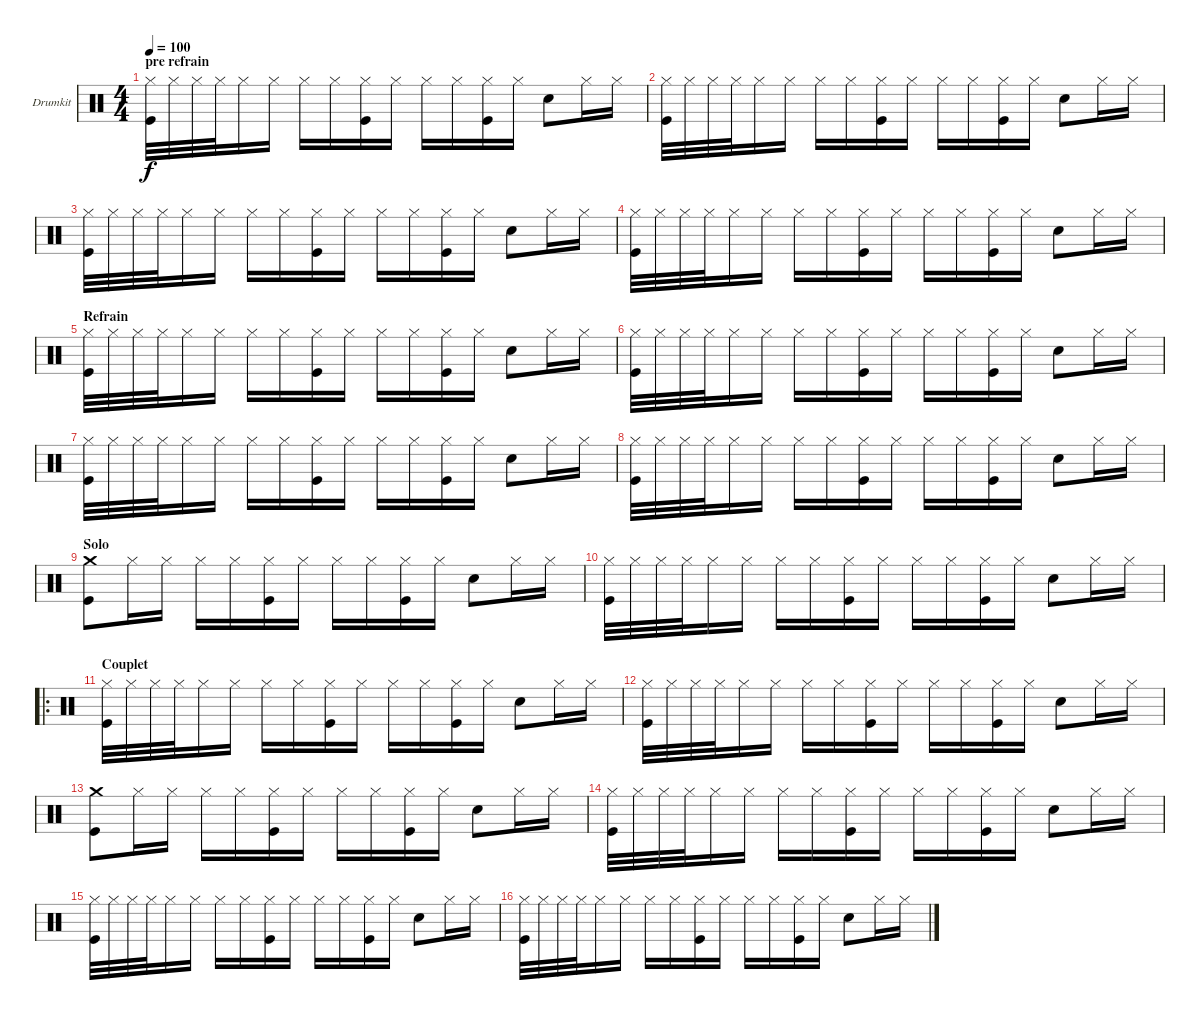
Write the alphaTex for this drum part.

\bracketExtendMode groupsimilarinstruments
\firstSystemTrackNameOrientation horizontal
\otherSystemsTrackNameOrientation horizontal
\track ("Drumkit" "Drumkit") {instrument percussion}
\staff {score}
\articulation defaults
\ts (4 4)
\section ("" "pre refrain")
\tempo 100
\clef neutral
\ks c
("Hi-Hat (closed)" "Kick (hit)").32{dy f} "Hi-Hat (closed)".32 "Hi-Hat (closed)".32 "Hi-Hat (closed)".32 "Hi-Hat (closed)".16 "Hi-Hat (closed)".16 "Hi-Hat (closed)".16 "Hi-Hat (closed)".16 ("Hi-Hat (closed)" "Kick (hit)").16 "Hi-Hat (closed)".16 "Hi-Hat (closed)".16 "Hi-Hat (closed)".16 ("Hi-Hat (closed)" "Kick (hit)").16 "Hi-Hat (closed)".16 "Snare (hit) 2".8 "Hi-Hat (closed)".16 "Hi-Hat (closed)".16 |
("Hi-Hat (closed)" "Kick (hit)").32 "Hi-Hat (closed)".32 "Hi-Hat (closed)".32 "Hi-Hat (closed)".32 "Hi-Hat (closed)".16 "Hi-Hat (closed)".16 "Hi-Hat (closed)".16 "Hi-Hat (closed)".16 ("Hi-Hat (closed)" "Kick (hit)").16 "Hi-Hat (closed)".16 "Hi-Hat (closed)".16 "Hi-Hat (closed)".16 ("Hi-Hat (closed)" "Kick (hit)").16 "Hi-Hat (closed)".16 "Snare (hit) 2".8 "Hi-Hat (closed)".16 "Hi-Hat (closed)".16 |
("Hi-Hat (closed)" "Kick (hit)").32 "Hi-Hat (closed)".32 "Hi-Hat (closed)".32 "Hi-Hat (closed)".32 "Hi-Hat (closed)".16 "Hi-Hat (closed)".16 "Hi-Hat (closed)".16 "Hi-Hat (closed)".16 ("Hi-Hat (closed)" "Kick (hit)").16 "Hi-Hat (closed)".16 "Hi-Hat (closed)".16 "Hi-Hat (closed)".16 ("Hi-Hat (closed)" "Kick (hit)").16 "Hi-Hat (closed)".16 "Snare (hit) 2".8 "Hi-Hat (closed)".16 "Hi-Hat (closed)".16 |
("Hi-Hat (closed)" "Kick (hit)").32 "Hi-Hat (closed)".32 "Hi-Hat (closed)".32 "Hi-Hat (closed)".32 "Hi-Hat (closed)".16 "Hi-Hat (closed)".16 "Hi-Hat (closed)".16 "Hi-Hat (closed)".16 ("Hi-Hat (closed)" "Kick (hit)").16 "Hi-Hat (closed)".16 "Hi-Hat (closed)".16 "Hi-Hat (closed)".16 ("Hi-Hat (closed)" "Kick (hit)").16 "Hi-Hat (closed)".16 "Snare (hit) 2".8 "Hi-Hat (closed)".16 "Hi-Hat (closed)".16 |
\section ("" "Refrain")
("Hi-Hat (closed)" "Kick (hit)").32 "Hi-Hat (closed)".32 "Hi-Hat (closed)".32 "Hi-Hat (closed)".32 "Hi-Hat (closed)".16 "Hi-Hat (closed)".16 "Hi-Hat (closed)".16 "Hi-Hat (closed)".16 ("Hi-Hat (closed)" "Kick (hit)").16 "Hi-Hat (closed)".16 "Hi-Hat (closed)".16 "Hi-Hat (closed)".16 ("Hi-Hat (closed)" "Kick (hit)").16 "Hi-Hat (closed)".16 "Snare (hit) 2".8 "Hi-Hat (closed)".16 "Hi-Hat (closed)".16 |
("Hi-Hat (closed)" "Kick (hit)").32 "Hi-Hat (closed)".32 "Hi-Hat (closed)".32 "Hi-Hat (closed)".32 "Hi-Hat (closed)".16 "Hi-Hat (closed)".16 "Hi-Hat (closed)".16 "Hi-Hat (closed)".16 ("Hi-Hat (closed)" "Kick (hit)").16 "Hi-Hat (closed)".16 "Hi-Hat (closed)".16 "Hi-Hat (closed)".16 ("Hi-Hat (closed)" "Kick (hit)").16 "Hi-Hat (closed)".16 "Snare (hit) 2".8 "Hi-Hat (closed)".16 "Hi-Hat (closed)".16 |
("Hi-Hat (closed)" "Kick (hit)").32 "Hi-Hat (closed)".32 "Hi-Hat (closed)".32 "Hi-Hat (closed)".32 "Hi-Hat (closed)".16 "Hi-Hat (closed)".16 "Hi-Hat (closed)".16 "Hi-Hat (closed)".16 ("Hi-Hat (closed)" "Kick (hit)").16 "Hi-Hat (closed)".16 "Hi-Hat (closed)".16 "Hi-Hat (closed)".16 ("Hi-Hat (closed)" "Kick (hit)").16 "Hi-Hat (closed)".16 "Snare (hit) 2".8 "Hi-Hat (closed)".16 "Hi-Hat (closed)".16 |
("Hi-Hat (closed)" "Kick (hit)").32 "Hi-Hat (closed)".32 "Hi-Hat (closed)".32 "Hi-Hat (closed)".32 "Hi-Hat (closed)".16 "Hi-Hat (closed)".16 "Hi-Hat (closed)".16 "Hi-Hat (closed)".16 ("Hi-Hat (closed)" "Kick (hit)").16 "Hi-Hat (closed)".16 "Hi-Hat (closed)".16 "Hi-Hat (closed)".16 ("Hi-Hat (closed)" "Kick (hit)").16 "Hi-Hat (closed)".16 "Snare (hit) 2".8 "Hi-Hat (closed)".16 "Hi-Hat (closed)".16 |
\section ("" "Solo")
("Crash medium (hit)" "Kick (hit)").8 "Hi-Hat (closed)".16 "Hi-Hat (closed)".16 "Hi-Hat (closed)".16 "Hi-Hat (closed)".16 ("Hi-Hat (closed)" "Kick (hit)").16 "Hi-Hat (closed)".16 "Hi-Hat (closed)".16 "Hi-Hat (closed)".16 ("Hi-Hat (closed)" "Kick (hit)").16 "Hi-Hat (closed)".16 "Snare (hit) 2".8 "Hi-Hat (closed)".16 "Hi-Hat (closed)".16 |
("Hi-Hat (closed)" "Kick (hit)").32 "Hi-Hat (closed)".32 "Hi-Hat (closed)".32 "Hi-Hat (closed)".32 "Hi-Hat (closed)".16 "Hi-Hat (closed)".16 "Hi-Hat (closed)".16 "Hi-Hat (closed)".16 ("Hi-Hat (closed)" "Kick (hit)").16 "Hi-Hat (closed)".16 "Hi-Hat (closed)".16 "Hi-Hat (closed)".16 ("Hi-Hat (closed)" "Kick (hit)").16 "Hi-Hat (closed)".16 "Snare (hit) 2".8 "Hi-Hat (closed)".16 "Hi-Hat (closed)".16 |
\ro
\section ("" "Couplet")
("Hi-Hat (closed)" "Kick (hit)").32 "Hi-Hat (closed)".32 "Hi-Hat (closed)".32 "Hi-Hat (closed)".32 "Hi-Hat (closed)".16 "Hi-Hat (closed)".16 "Hi-Hat (closed)".16 "Hi-Hat (closed)".16 ("Hi-Hat (closed)" "Kick (hit)").16 "Hi-Hat (closed)".16 "Hi-Hat (closed)".16 "Hi-Hat (closed)".16 ("Hi-Hat (closed)" "Kick (hit)").16 "Hi-Hat (closed)".16 "Snare (hit) 2".8 "Hi-Hat (closed)".16 "Hi-Hat (closed)".16 |
("Hi-Hat (closed)" "Kick (hit)").32 "Hi-Hat (closed)".32 "Hi-Hat (closed)".32 "Hi-Hat (closed)".32 "Hi-Hat (closed)".16 "Hi-Hat (closed)".16 "Hi-Hat (closed)".16 "Hi-Hat (closed)".16 ("Hi-Hat (closed)" "Kick (hit)").16 "Hi-Hat (closed)".16 "Hi-Hat (closed)".16 "Hi-Hat (closed)".16 ("Hi-Hat (closed)" "Kick (hit)").16 "Hi-Hat (closed)".16 "Snare (hit) 2".8 "Hi-Hat (closed)".16 "Hi-Hat (closed)".16 |
("Crash medium (hit)" "Kick (hit)").8 "Hi-Hat (closed)".16 "Hi-Hat (closed)".16 "Hi-Hat (closed)".16 "Hi-Hat (closed)".16 ("Hi-Hat (closed)" "Kick (hit)").16 "Hi-Hat (closed)".16 "Hi-Hat (closed)".16 "Hi-Hat (closed)".16 ("Hi-Hat (closed)" "Kick (hit)").16 "Hi-Hat (closed)".16 "Snare (hit) 2".8 "Hi-Hat (closed)".16 "Hi-Hat (closed)".16 |
("Hi-Hat (closed)" "Kick (hit)").32 "Hi-Hat (closed)".32 "Hi-Hat (closed)".32 "Hi-Hat (closed)".32 "Hi-Hat (closed)".16 "Hi-Hat (closed)".16 "Hi-Hat (closed)".16 "Hi-Hat (closed)".16 ("Hi-Hat (closed)" "Kick (hit)").16 "Hi-Hat (closed)".16 "Hi-Hat (closed)".16 "Hi-Hat (closed)".16 ("Hi-Hat (closed)" "Kick (hit)").16 "Hi-Hat (closed)".16 "Snare (hit) 2".8 "Hi-Hat (closed)".16 "Hi-Hat (closed)".16 |
("Hi-Hat (closed)" "Kick (hit)").32 "Hi-Hat (closed)".32 "Hi-Hat (closed)".32 "Hi-Hat (closed)".32 "Hi-Hat (closed)".16 "Hi-Hat (closed)".16 "Hi-Hat (closed)".16 "Hi-Hat (closed)".16 ("Hi-Hat (closed)" "Kick (hit)").16 "Hi-Hat (closed)".16 "Hi-Hat (closed)".16 "Hi-Hat (closed)".16 ("Hi-Hat (closed)" "Kick (hit)").16 "Hi-Hat (closed)".16 "Snare (hit) 2".8 "Hi-Hat (closed)".16 "Hi-Hat (closed)".16 |
("Hi-Hat (closed)" "Kick (hit)").32 "Hi-Hat (closed)".32 "Hi-Hat (closed)".32 "Hi-Hat (closed)".32 "Hi-Hat (closed)".16 "Hi-Hat (closed)".16 "Hi-Hat (closed)".16 "Hi-Hat (closed)".16 ("Hi-Hat (closed)" "Kick (hit)").16 "Hi-Hat (closed)".16 "Hi-Hat (closed)".16 "Hi-Hat (closed)".16 ("Hi-Hat (closed)" "Kick (hit)").16 "Hi-Hat (closed)".16 "Snare (hit) 2".8 "Hi-Hat (closed)".16 "Hi-Hat (closed)".16
